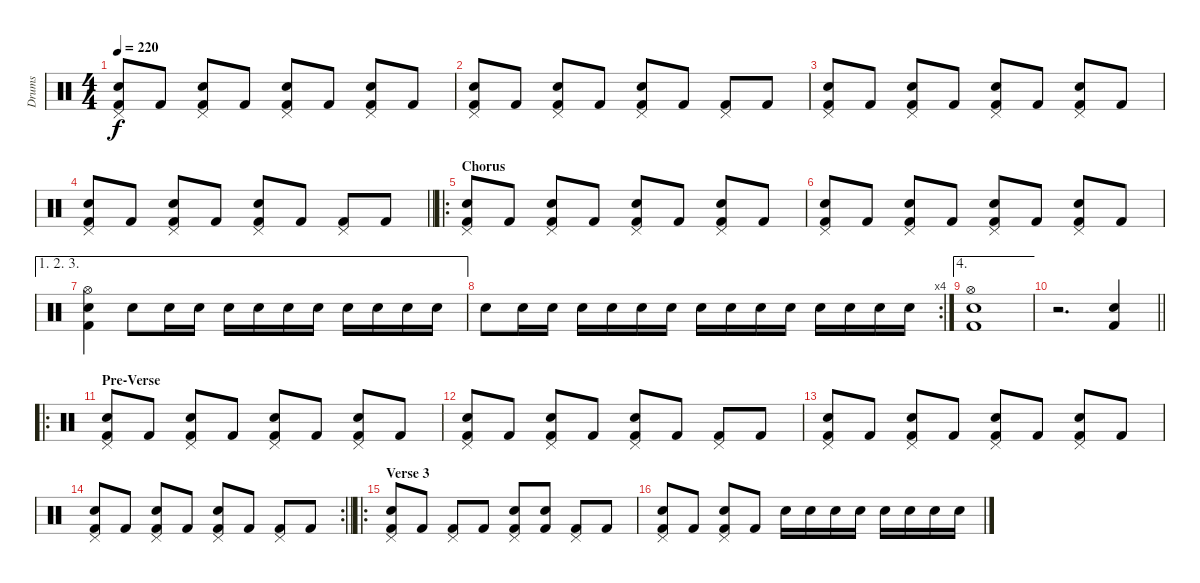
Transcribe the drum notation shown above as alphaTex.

\track ("Drums" "Drums") {instrument percussion}
\staff {score}
\articulation defaults
\ts (4 4)
\tempo 220
\clef neutral
\ks c
("Pedal Hi-Hat (hit)" "Snare (hit) 2" "Kick (hit) 2").8{dy f} "Kick (hit) 2".8 ("Pedal Hi-Hat (hit)" "Snare (hit) 2" "Kick (hit) 2").8 "Kick (hit) 2".8 ("Pedal Hi-Hat (hit)" "Snare (hit) 2" "Kick (hit) 2").8 "Kick (hit) 2".8 ("Pedal Hi-Hat (hit)" "Snare (hit) 2" "Kick (hit) 2").8 "Kick (hit) 2".8 |
("Pedal Hi-Hat (hit)" "Snare (hit) 2" "Kick (hit) 2").8 "Kick (hit) 2".8 ("Pedal Hi-Hat (hit)" "Snare (hit) 2" "Kick (hit) 2").8 "Kick (hit) 2".8 ("Pedal Hi-Hat (hit)" "Snare (hit) 2" "Kick (hit) 2").8 "Kick (hit) 2".8 ("Pedal Hi-Hat (hit)" "Kick (hit) 2").8 "Kick (hit) 2".8 |
("Pedal Hi-Hat (hit)" "Snare (hit) 2" "Kick (hit) 2").8 "Kick (hit) 2".8 ("Pedal Hi-Hat (hit)" "Snare (hit) 2" "Kick (hit) 2").8 "Kick (hit) 2".8 ("Pedal Hi-Hat (hit)" "Snare (hit) 2" "Kick (hit) 2").8 "Kick (hit) 2".8 ("Pedal Hi-Hat (hit)" "Snare (hit) 2" "Kick (hit) 2").8 "Kick (hit) 2".8 |
\barLineRight lightlight
("Pedal Hi-Hat (hit)" "Snare (hit) 2" "Kick (hit) 2").8 "Kick (hit) 2".8 ("Pedal Hi-Hat (hit)" "Snare (hit) 2" "Kick (hit) 2").8 "Kick (hit) 2".8 ("Pedal Hi-Hat (hit)" "Snare (hit) 2" "Kick (hit) 2").8 "Kick (hit) 2".8 ("Pedal Hi-Hat (hit)" "Kick (hit) 2").8 "Kick (hit) 2".8 |
\ro
\section ("" "Chorus")
("Pedal Hi-Hat (hit)" "Snare (hit) 2" "Kick (hit) 2").8 "Kick (hit) 2".8 ("Pedal Hi-Hat (hit)" "Snare (hit) 2" "Kick (hit) 2").8 "Kick (hit) 2".8 ("Pedal Hi-Hat (hit)" "Snare (hit) 2" "Kick (hit) 2").8 "Kick (hit) 2".8 ("Pedal Hi-Hat (hit)" "Snare (hit) 2" "Kick (hit) 2").8 "Kick (hit) 2".8 |
("Pedal Hi-Hat (hit)" "Snare (hit) 2" "Kick (hit) 2").8 "Kick (hit) 2".8 ("Pedal Hi-Hat (hit)" "Snare (hit) 2" "Kick (hit) 2").8 "Kick (hit) 2".8 ("Pedal Hi-Hat (hit)" "Snare (hit) 2" "Kick (hit) 2").8 "Kick (hit) 2".8 ("Pedal Hi-Hat (hit)" "Snare (hit) 2" "Kick (hit) 2").8 "Kick (hit) 2".8 |
\ae (1 2 3)
("Hi-Hat (open)" "Snare (hit) 2" "Kick (hit) 2").4 "Snare (hit) 2".8 "Snare (hit) 2".16 "Snare (hit) 2".16 "Snare (hit) 2".16 "Snare (hit) 2".16 "Snare (hit) 2".16 "Snare (hit) 2".16 "Snare (hit) 2".16 "Snare (hit) 2".16 "Snare (hit) 2".16 "Snare (hit) 2".16 |
\rc 4 "Snare (hit) 2".8 "Snare (hit) 2".16 "Snare (hit) 2".16 "Snare (hit) 2".16 "Snare (hit) 2".16 "Snare (hit) 2".16 "Snare (hit) 2".16 "Snare (hit) 2".16 "Snare (hit) 2".16 "Snare (hit) 2".16 "Snare (hit) 2".16 "Snare (hit) 2".16 "Snare (hit) 2".16 "Snare (hit) 2".16 "Snare (hit) 2".16
|
\ae 4
("Hi-Hat (open)" "Snare (hit) 2" "Kick (hit) 2").1 |
\barLineRight lightlight
r.2{d} ("Snare (hit) 2" "Kick (hit) 2").4 |
\ro
\section ("" "Pre-Verse")
("Pedal Hi-Hat (hit)" "Snare (hit) 2" "Kick (hit) 2").8 "Kick (hit) 2".8 ("Pedal Hi-Hat (hit)" "Snare (hit) 2" "Kick (hit) 2").8 "Kick (hit) 2".8 ("Pedal Hi-Hat (hit)" "Snare (hit) 2" "Kick (hit) 2").8 "Kick (hit) 2".8 ("Pedal Hi-Hat (hit)" "Snare (hit) 2" "Kick (hit) 2").8 "Kick (hit) 2".8 |
("Pedal Hi-Hat (hit)" "Snare (hit) 2" "Kick (hit) 2").8 "Kick (hit) 2".8 ("Pedal Hi-Hat (hit)" "Snare (hit) 2" "Kick (hit) 2").8 "Kick (hit) 2".8 ("Pedal Hi-Hat (hit)" "Snare (hit) 2" "Kick (hit) 2").8 "Kick (hit) 2".8 ("Pedal Hi-Hat (hit)" "Kick (hit) 2").8 "Kick (hit) 2".8 |
("Pedal Hi-Hat (hit)" "Snare (hit) 2" "Kick (hit) 2").8 "Kick (hit) 2".8 ("Pedal Hi-Hat (hit)" "Snare (hit) 2" "Kick (hit) 2").8 "Kick (hit) 2".8 ("Pedal Hi-Hat (hit)" "Snare (hit) 2" "Kick (hit) 2").8 "Kick (hit) 2".8 ("Pedal Hi-Hat (hit)" "Snare (hit) 2" "Kick (hit) 2").8 "Kick (hit) 2".8 |
\rc 2
\barLineRight lightlight
("Pedal Hi-Hat (hit)" "Snare (hit) 2" "Kick (hit) 2").8 "Kick (hit) 2".8 ("Pedal Hi-Hat (hit)" "Snare (hit) 2" "Kick (hit) 2").8 "Kick (hit) 2".8 ("Pedal Hi-Hat (hit)" "Snare (hit) 2" "Kick (hit) 2").8 "Kick (hit) 2".8 ("Pedal Hi-Hat (hit)" "Kick (hit) 2").8 "Kick (hit) 2".8 |
\ro
\section ("" "Verse 3")
("Pedal Hi-Hat (hit)" "Snare (hit) 2" "Kick (hit) 2").8 "Kick (hit) 2".8 ("Pedal Hi-Hat (hit)" "Kick (hit) 2").8 "Kick (hit) 2".8 ("Pedal Hi-Hat (hit)" "Snare (hit) 2" "Kick (hit) 2").8 ("Snare (hit) 2" "Kick (hit) 2").8 ("Pedal Hi-Hat (hit)" "Kick (hit) 2").8 "Kick (hit) 2".8 |
("Pedal Hi-Hat (hit)" "Snare (hit) 2" "Kick (hit) 2").8 "Kick (hit) 2".8 ("Pedal Hi-Hat (hit)" "Snare (hit) 2" "Kick (hit) 2").8 "Kick (hit) 2".8 "Snare (hit) 2".16 "Snare (hit) 2".16 "Snare (hit) 2".16 "Snare (hit) 2".16 "Snare (hit) 2".16 "Snare (hit) 2".16 "Snare (hit) 2".16 "Snare (hit) 2".16
